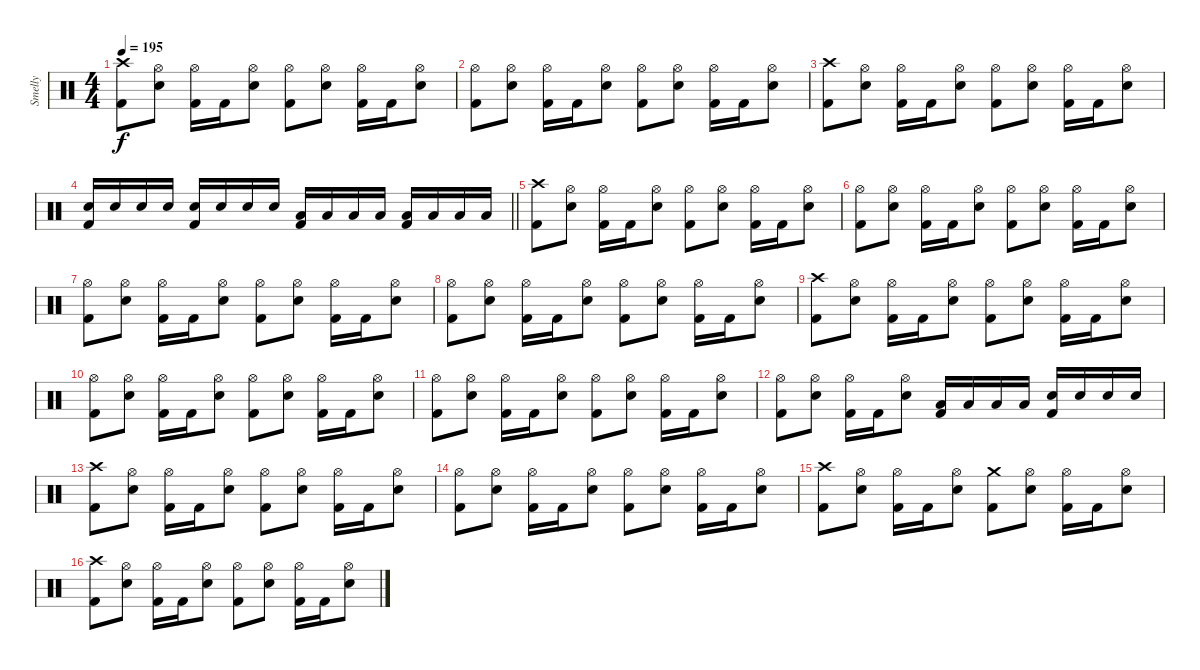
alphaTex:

\track ("Smelly" "Smelly") {instrument percussion}
\staff {score}
\articulation defaults
\ts (4 4)
\tempo 195
\clef neutral
\ks c
("Crash high (hit)" "Kick (hit) 2").8{dy f} ("Hi-Hat (open)" "Electric Snare (hit)").8 ("Hi-Hat (open)" "Kick (hit) 2").16 "Kick (hit) 2".16 ("Hi-Hat (open)" "Electric Snare (hit)").8 ("Hi-Hat (open)" "Kick (hit) 2").8 ("Hi-Hat (open)" "Electric Snare (hit)").8 ("Hi-Hat (open)" "Kick (hit) 2").16 "Kick (hit) 2".16 ("Hi-Hat (open)" "Electric Snare (hit)").8 |
("Hi-Hat (open)" "Kick (hit) 2").8 ("Hi-Hat (open)" "Electric Snare (hit)").8 ("Hi-Hat (open)" "Kick (hit) 2").16 "Kick (hit) 2".16 ("Hi-Hat (open)" "Electric Snare (hit)").8 ("Hi-Hat (open)" "Kick (hit) 2").8 ("Hi-Hat (open)" "Electric Snare (hit)").8 ("Hi-Hat (open)" "Kick (hit) 2").16 "Kick (hit) 2".16 ("Hi-Hat (open)" "Electric Snare (hit)").8 |
("Crash high (hit)" "Kick (hit) 2").8 ("Hi-Hat (open)" "Electric Snare (hit)").8 ("Hi-Hat (open)" "Kick (hit) 2").16 "Kick (hit) 2".16 ("Hi-Hat (open)" "Electric Snare (hit)").8 ("Hi-Hat (open)" "Kick (hit) 2").8 ("Hi-Hat (open)" "Electric Snare (hit)").8 ("Hi-Hat (open)" "Kick (hit) 2").16 "Kick (hit) 2".16 ("Hi-Hat (open)" "Electric Snare (hit)").8 |
\barLineRight lightlight
("Electric Snare (hit)" "Kick (hit) 2").16 "Electric Snare (hit)".16 "Electric Snare (hit)".16 "Electric Snare (hit)".16 ("Electric Snare (hit)" "Kick (hit) 2").16 "Electric Snare (hit)".16 "Electric Snare (hit)".16 "Electric Snare (hit)".16 ("Low Tom (hit)" "Kick (hit) 2").16 "Low Tom (hit)".16 "Low Tom (hit)".16 "Low Tom (hit)".16 ("Low Floor Tom (hit)" "Kick (hit) 2").16 "Low Floor Tom (hit)".16 "Low Floor Tom (hit)".16 "Low Floor Tom (hit)".16 |
\section ("" "")
("Crash high (hit)" "Kick (hit) 2").8 ("Hi-Hat (open)" "Electric Snare (hit)").8 ("Hi-Hat (open)" "Kick (hit) 2").16 "Kick (hit) 2".16 ("Hi-Hat (open)" "Electric Snare (hit)").8 ("Hi-Hat (open)" "Kick (hit) 2").8 ("Hi-Hat (open)" "Electric Snare (hit)").8 ("Hi-Hat (open)" "Kick (hit) 2").16 "Kick (hit) 2".16 ("Hi-Hat (open)" "Electric Snare (hit)").8 |
("Hi-Hat (open)" "Kick (hit) 2").8 ("Hi-Hat (open)" "Electric Snare (hit)").8 ("Hi-Hat (open)" "Kick (hit) 2").16 "Kick (hit) 2".16 ("Hi-Hat (open)" "Electric Snare (hit)").8 ("Hi-Hat (open)" "Kick (hit) 2").8 ("Hi-Hat (open)" "Electric Snare (hit)").8 ("Hi-Hat (open)" "Kick (hit) 2").16 "Kick (hit) 2".16 ("Hi-Hat (open)" "Electric Snare (hit)").8 |
("Hi-Hat (open)" "Kick (hit) 2").8 ("Hi-Hat (open)" "Electric Snare (hit)").8 ("Hi-Hat (open)" "Kick (hit) 2").16 "Kick (hit) 2".16 ("Hi-Hat (open)" "Electric Snare (hit)").8 ("Hi-Hat (open)" "Kick (hit) 2").8 ("Hi-Hat (open)" "Electric Snare (hit)").8 ("Hi-Hat (open)" "Kick (hit) 2").16 "Kick (hit) 2".16 ("Hi-Hat (open)" "Electric Snare (hit)").8 |
("Hi-Hat (open)" "Kick (hit) 2").8 ("Hi-Hat (open)" "Electric Snare (hit)").8 ("Hi-Hat (open)" "Kick (hit) 2").16 "Kick (hit) 2".16 ("Hi-Hat (open)" "Electric Snare (hit)").8 ("Hi-Hat (open)" "Kick (hit) 2").8 ("Hi-Hat (open)" "Electric Snare (hit)").8 ("Hi-Hat (open)" "Kick (hit) 2").16 "Kick (hit) 2".16 ("Hi-Hat (open)" "Electric Snare (hit)").8 |
("Crash high (hit)" "Kick (hit) 2").8 ("Hi-Hat (open)" "Electric Snare (hit)").8 ("Hi-Hat (open)" "Kick (hit) 2").16 "Kick (hit) 2".16 ("Hi-Hat (open)" "Electric Snare (hit)").8 ("Hi-Hat (open)" "Kick (hit) 2").8 ("Hi-Hat (open)" "Electric Snare (hit)").8 ("Hi-Hat (open)" "Kick (hit) 2").16 "Kick (hit) 2".16 ("Hi-Hat (open)" "Electric Snare (hit)").8 |
("Hi-Hat (open)" "Kick (hit) 2").8 ("Hi-Hat (open)" "Electric Snare (hit)").8 ("Hi-Hat (open)" "Kick (hit) 2").16 "Kick (hit) 2".16 ("Hi-Hat (open)" "Electric Snare (hit)").8 ("Hi-Hat (open)" "Kick (hit) 2").8 ("Hi-Hat (open)" "Electric Snare (hit)").8 ("Hi-Hat (open)" "Kick (hit) 2").16 "Kick (hit) 2".16 ("Hi-Hat (open)" "Electric Snare (hit)").8 |
("Hi-Hat (open)" "Kick (hit) 2").8 ("Hi-Hat (open)" "Electric Snare (hit)").8 ("Hi-Hat (open)" "Kick (hit) 2").16 "Kick (hit) 2".16 ("Hi-Hat (open)" "Electric Snare (hit)").8 ("Hi-Hat (open)" "Kick (hit) 2").8 ("Hi-Hat (open)" "Electric Snare (hit)").8 ("Hi-Hat (open)" "Kick (hit) 2").16 "Kick (hit) 2".16 ("Hi-Hat (open)" "Electric Snare (hit)").8 |
("Hi-Hat (open)" "Kick (hit) 2").8 ("Hi-Hat (open)" "Electric Snare (hit)").8 ("Hi-Hat (open)" "Kick (hit) 2").16 "Kick (hit) 2".16 ("Hi-Hat (open)" "Electric Snare (hit)").8 ("Low Tom (hit)" "Kick (hit) 2").16 "Low Tom (hit)".16 "Low Tom (hit)".16 "Low Tom (hit)".16 ("Electric Snare (hit)" "Kick (hit) 2").16 "Electric Snare (hit)".16 "Electric Snare (hit)".16 "Electric Snare (hit)".16 |
("Crash high (hit)" "Kick (hit) 2").8 ("Hi-Hat (open)" "Electric Snare (hit)").8 ("Hi-Hat (open)" "Kick (hit) 2").16 "Kick (hit) 2".16 ("Hi-Hat (open)" "Electric Snare (hit)").8 ("Hi-Hat (open)" "Kick (hit) 2").8 ("Hi-Hat (open)" "Electric Snare (hit)").8 ("Hi-Hat (open)" "Kick (hit) 2").16 "Kick (hit) 2".16 ("Hi-Hat (open)" "Electric Snare (hit)").8 |
("Hi-Hat (open)" "Kick (hit) 2").8 ("Hi-Hat (open)" "Electric Snare (hit)").8 ("Hi-Hat (open)" "Kick (hit) 2").16 "Kick (hit) 2".16 ("Hi-Hat (open)" "Electric Snare (hit)").8 ("Hi-Hat (open)" "Kick (hit) 2").8 ("Hi-Hat (open)" "Electric Snare (hit)").8 ("Hi-Hat (open)" "Kick (hit) 2").16 "Kick (hit) 2".16 ("Hi-Hat (open)" "Electric Snare (hit)").8 |
("Crash high (hit)" "Kick (hit) 2").8 ("Hi-Hat (open)" "Electric Snare (hit)").8 ("Hi-Hat (open)" "Kick (hit) 2").16 "Kick (hit) 2".16 ("Hi-Hat (open)" "Electric Snare (hit)").8 ("Crash medium (hit)" "Kick (hit) 2").8 ("Hi-Hat (open)" "Electric Snare (hit)").8 ("Hi-Hat (open)" "Kick (hit) 2").16 "Kick (hit) 2".16 ("Hi-Hat (open)" "Electric Snare (hit)").8 |
("Crash high (hit)" "Kick (hit) 2").8 ("Hi-Hat (open)" "Electric Snare (hit)").8 ("Hi-Hat (open)" "Kick (hit) 2").16 "Kick (hit) 2".16 ("Hi-Hat (open)" "Electric Snare (hit)").8 ("Hi-Hat (open)" "Kick (hit) 2").8 ("Hi-Hat (open)" "Electric Snare (hit)").8 ("Hi-Hat (open)" "Kick (hit) 2").16 "Kick (hit) 2".16 ("Hi-Hat (open)" "Electric Snare (hit)").8
